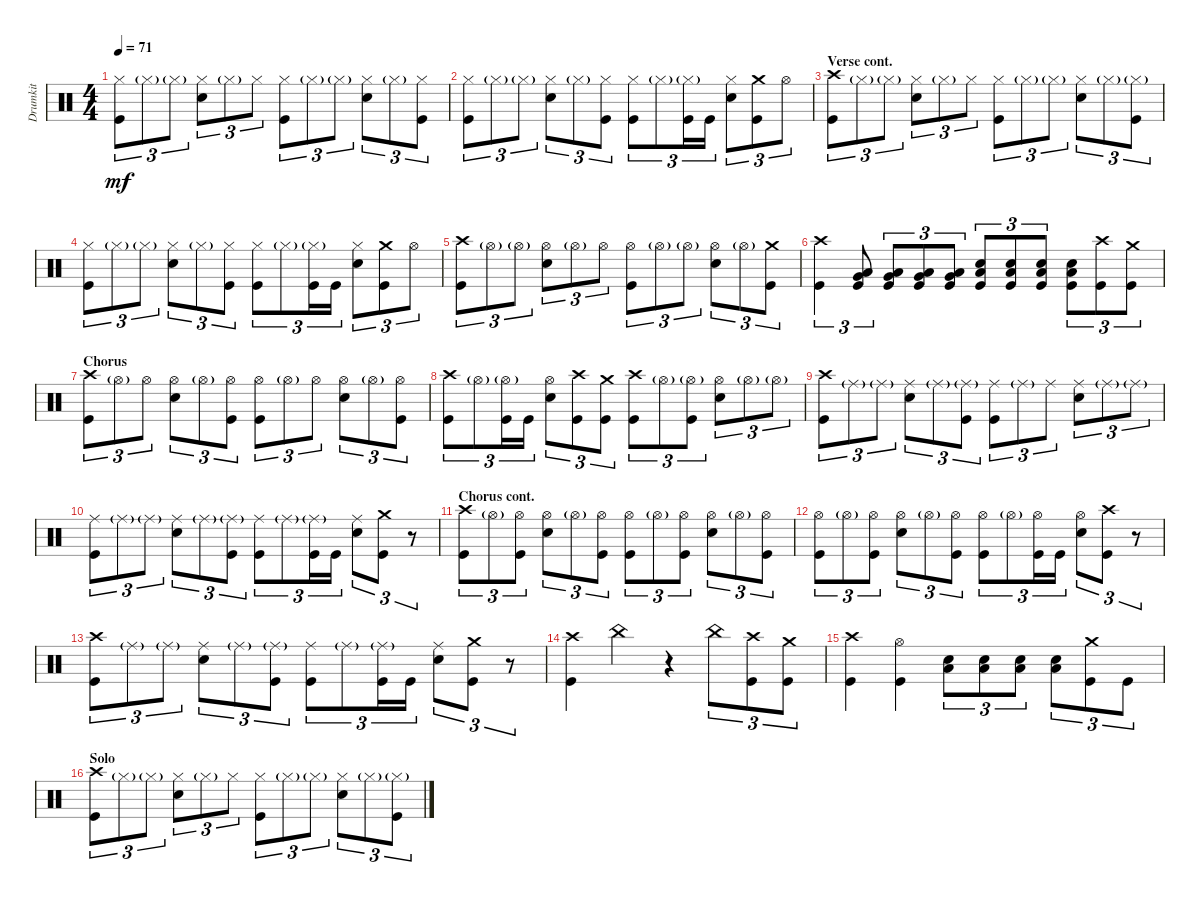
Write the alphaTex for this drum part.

\track ("Drumkit" "Drumkit") {instrument percussion}
\staff {score}
\articulation defaults
\ts (4 4)
\tempo 71
\clef neutral
\ks c
("Hi-Hat (closed)" "Kick (hit)").8{tu (3 2) dy mf} "Hi-Hat (closed)"{g}.8{tu (3 2)} "Hi-Hat (closed)"{g}.8{tu (3 2)} ("Hi-Hat (closed)" "Snare (hit) 2").8{tu (3 2)} "Hi-Hat (closed)"{g}.8{tu (3 2)} "Hi-Hat (closed)".8{tu (3 2)} ("Hi-Hat (closed)" "Kick (hit)").8{tu (3 2)} "Hi-Hat (closed)"{g}.8{tu (3 2)} "Hi-Hat (closed)"{g}.8{tu (3 2)} ("Hi-Hat (closed)" "Snare (hit) 2").8{tu (3 2)} "Hi-Hat (closed)"{g}.8{tu (3 2)} ("Hi-Hat (closed)" "Kick (hit)").8{tu (3 2)} |
("Kick (hit)" "Hi-Hat (closed)").8{tu (3 2)} "Hi-Hat (closed)"{g}.8{tu (3 2)} "Hi-Hat (closed)"{g}.8{tu (3 2)} ("Hi-Hat (closed)" "Snare (hit) 2").8{tu (3 2)} "Hi-Hat (closed)"{g}.8{tu (3 2)} ("Hi-Hat (closed)" "Kick (hit)").8{tu (3 2)} ("Hi-Hat (closed)" "Kick (hit)").8{tu (3 2)} "Hi-Hat (closed)"{g}.8{tu (3 2)} ("Hi-Hat (closed)"{g} "Kick (hit)").16{tu (3 2)} "Kick (hit)".16{tu (3 2)} ("Hi-Hat (closed)" "Snare (hit) 2").8{tu (3 2)} ("Crash medium (hit)" "Kick (hit)").8{tu (3 2)} "Hi-Hat (open)".8{tu (3 2)} |
\section ("" "Verse cont.")
("Crash high (hit)" "Kick (hit)").8{tu (3 2)} "Hi-Hat (closed)"{g}.8{tu (3 2)} "Hi-Hat (closed)"{g}.8{tu (3 2)} ("Hi-Hat (closed)" "Snare (hit) 2").8{tu (3 2)} "Hi-Hat (closed)"{g}.8{tu (3 2)} "Hi-Hat (closed)".8{tu (3 2)} ("Hi-Hat (closed)" "Kick (hit)").8{tu (3 2)} "Hi-Hat (closed)"{g}.8{tu (3 2)} "Hi-Hat (closed)"{g}.8{tu (3 2)} ("Hi-Hat (closed)" "Snare (hit) 2").8{tu (3 2)} "Hi-Hat (closed)"{g}.8{tu (3 2)} ("Hi-Hat (closed)"{g} "Kick (hit)").8{tu (3 2)} |
("Kick (hit)" "Hi-Hat (closed)").8{tu (3 2)} "Hi-Hat (closed)"{g}.8{tu (3 2)} "Hi-Hat (closed)"{g}.8{tu (3 2)} ("Hi-Hat (closed)" "Snare (hit) 2").8{tu (3 2)} "Hi-Hat (closed)"{g}.8{tu (3 2)} ("Hi-Hat (closed)" "Kick (hit)").8{tu (3 2)} ("Hi-Hat (closed)" "Kick (hit)").8{tu (3 2)} "Hi-Hat (closed)"{g}.8{tu (3 2)} ("Hi-Hat (closed)"{g} "Kick (hit)").16{tu (3 2)} "Kick (hit)".16{tu (3 2)} ("Hi-Hat (closed)" "Snare (hit) 2").8{tu (3 2)} ("Crash medium (hit)" "Kick (hit)").8{tu (3 2)} "Hi-Hat (open)".8{tu (3 2)} |
("Kick (hit)" "Crash high (hit)").8{tu (3 2)} "Hi-Hat (open)"{g}.8{tu (3 2)} "Hi-Hat (open)"{g}.8{tu (3 2)} ("Hi-Hat (open)" "Snare (hit) 2").8{tu (3 2)} "Hi-Hat (open)"{g}.8{tu (3 2)} "Hi-Hat (open)".8{tu (3 2)} ("Hi-Hat (open)" "Kick (hit)").8{tu (3 2)} "Hi-Hat (open)"{g}.8{tu (3 2)} "Hi-Hat (open)"{g}.8{tu (3 2)} ("Hi-Hat (open)" "Snare (hit) 2").8{tu (3 2)} "Hi-Hat (open)"{g}.8{tu (3 2)} ("Kick (hit)" "Crash medium (hit)").8{tu (3 2)} |
("Crash high (hit)" "Kick (hit)").4{tu (3 2)} ("Low Floor Tom (hit)" "Kick (hit)" "Very Low Tom (hit)").8{tu (3 2)} ("Low Floor Tom (hit)" "Kick (hit)" "Very Low Tom (hit)").8{tu (3 2)} ("Low Floor Tom (hit)" "Kick (hit)" "Very Low Tom (hit)").8{tu (3 2)} ("Low Floor Tom (hit)" "Kick (hit)" "Very Low Tom (hit)").8{tu (3 2)} ("Snare (hit) 2" "Kick (hit)" "Low Floor Tom (hit)").8{tu (3 2)} ("Snare (hit) 2" "Kick (hit)" "Low Floor Tom (hit)").8{tu (3 2)} ("Snare (hit) 2" "Kick (hit)" "Low Floor Tom (hit)").8{tu (3 2)} ("Snare (hit) 2" "Kick (hit)" "Low Floor Tom (hit)").8{tu (3 2)} ("Kick (hit)" "Crash high (hit)").8{tu (3 2)} ("Kick (hit)" "Crash medium (hit)").8{tu (3 2)} |
\section ("" "Chorus")
("Kick (hit)" "Crash high (hit)").8{tu (3 2)} "Hi-Hat (open)"{g}.8{tu (3 2)} "Hi-Hat (open)".8{tu (3 2)} ("Snare (hit) 2" "Hi-Hat (open)").8{tu (3 2)} "Hi-Hat (open)"{g}.8{tu (3 2)} ("Kick (hit)" "Hi-Hat (open)").8{tu (3 2)} ("Kick (hit)" "Hi-Hat (open)").8{tu (3 2)} "Hi-Hat (open)"{g}.8{tu (3 2)} "Hi-Hat (open)".8{tu (3 2)} ("Snare (hit) 2" "Hi-Hat (open)").8{tu (3 2)} "Hi-Hat (open)"{g}.8{tu (3 2)} ("Kick (hit)" "Hi-Hat (open)").8{tu (3 2)} |
("Kick (hit)" "Crash high (hit)").8{tu (3 2)} "Hi-Hat (open)"{g}.8{tu (3 2)} ("Kick (hit)" "Hi-Hat (open)"{g}).16{tu (3 2)} "Kick (hit)".16{tu (3 2)} ("Snare (hit) 2" "Hi-Hat (open)").8{tu (3 2)} ("Kick (hit)" "Crash high (hit)").8{tu (3 2)} ("Kick (hit)" "Crash medium (hit)").8{tu (3 2)} ("Kick (hit)" "Crash high (hit)").8{tu (3 2)} "Hi-Hat (open)"{g}.8{tu (3 2)} ("Kick (hit)" "Hi-Hat (open)"{g}).8{tu (3 2)} ("Snare (hit) 2" "Hi-Hat (open)").8{tu (3 2)} "Hi-Hat (open)"{g}.8{tu (3 2)} "Hi-Hat (open)"{g}.8{tu (3 2)} |
("Crash high (hit)" "Kick (hit)").8{tu (3 2)} "Ride (middle)"{g}.8{tu (3 2)} "Ride (middle)"{g}.8{tu (3 2)} ("Ride (middle)" "Snare (hit) 2").8{tu (3 2)} "Ride (middle)"{g}.8{tu (3 2)} ("Ride (middle)"{g} "Kick (hit)").8{tu (3 2)} ("Ride (middle)" "Kick (hit)").8{tu (3 2)} "Ride (middle)"{g}.8{tu (3 2)} "Ride (middle)".8{tu (3 2)} ("Ride (middle)" "Snare (hit) 2").8{tu (3 2)} "Ride (middle)"{g}.8{tu (3 2)} "Ride (middle)"{g}.8{tu (3 2)} |
("Ride (middle)" "Kick (hit)").8{tu (3 2)} "Ride (middle)"{g}.8{tu (3 2)} "Ride (middle)"{g}.8{tu (3 2)} ("Ride (middle)" "Snare (hit) 2").8{tu (3 2)} "Ride (middle)"{g}.8{tu (3 2)} ("Ride (middle)"{g} "Kick (hit)").8{tu (3 2)} ("Ride (middle)" "Kick (hit)").8{tu (3 2)} "Ride (middle)"{g}.8{tu (3 2)} ("Ride (middle)"{g} "Kick (hit)").16{tu (3 2)} "Kick (hit)".16{tu (3 2)} ("Ride (middle)" "Snare (hit) 2").8{tu (3 2)} ("Crash medium (hit)" "Kick (hit)").8{tu (3 2)} r.8{tu (3 2)} |
\section ("" "Chorus cont.")
("Kick (hit)" "Crash high (hit)").8{tu (3 2)} "Hi-Hat (open)"{g}.8{tu (3 2)} ("Kick (hit)" "Hi-Hat (open)").8{tu (3 2)} ("Snare (hit) 2" "Hi-Hat (open)").8{tu (3 2)} "Hi-Hat (open)"{g}.8{tu (3 2)} ("Kick (hit)" "Hi-Hat (open)").8{tu (3 2)} ("Kick (hit)" "Hi-Hat (open)").8{tu (3 2)} "Hi-Hat (open)"{g}.8{tu (3 2)} ("Kick (hit)" "Hi-Hat (open)").8{tu (3 2)} ("Snare (hit) 2" "Hi-Hat (open)").8{tu (3 2)} "Hi-Hat (open)"{g}.8{tu (3 2)} ("Kick (hit)" "Hi-Hat (open)").8{tu (3 2)} |
("Kick (hit)" "Hi-Hat (open)").8{tu (3 2)} "Hi-Hat (open)"{g}.8{tu (3 2)} ("Kick (hit)" "Hi-Hat (open)").8{tu (3 2)} ("Snare (hit) 2" "Hi-Hat (open)").8{tu (3 2)} "Hi-Hat (open)"{g}.8{tu (3 2)} ("Kick (hit)" "Hi-Hat (open)").8{tu (3 2)} ("Kick (hit)" "Hi-Hat (open)").8{tu (3 2)} "Hi-Hat (open)"{g}.8{tu (3 2)} ("Kick (hit)" "Hi-Hat (open)").16{tu (3 2)} "Kick (hit)".16{tu (3 2)} ("Snare (hit) 2" "Hi-Hat (open)").8{tu (3 2)} ("Kick (hit)" "Crash high (hit)").8{tu (3 2)} r.8{tu (3 2)} |
("Kick (hit)" "Crash high (hit)").8{tu (3 2)} "Ride (middle)"{g}.8{tu (3 2)} "Ride (middle)"{g}.8{tu (3 2)} ("Ride (middle)" "Snare (hit) 2").8{tu (3 2)} "Ride (middle)"{g}.8{tu (3 2)} ("Ride (middle)"{g} "Kick (hit)").8{tu (3 2)} ("Ride (middle)" "Kick (hit)").8{tu (3 2)} "Ride (middle)"{g}.8{tu (3 2)} ("Ride (middle)"{g} "Kick (hit)").16{tu (3 2)} "Kick (hit)".16{tu (3 2)} ("Ride (middle)" "Snare (hit) 2").8{tu (3 2)} ("Crash medium (hit)" "Kick (hit)").8{tu (3 2)} r.8{tu (3 2)} |
("Kick (hit)" "Crash high (hit)").4 "China (hit)".4 r.4 "China (hit)".8{tu (3 2)} ("Kick (hit)" "Crash high (hit)").8{tu (3 2)} ("Kick (hit)" "Crash medium (hit)").8{tu (3 2)} |
("Kick (hit)" "Crash high (hit)").4 ("Kick (hit)" "Hi-Hat (open)").4 ("Snare (hit) 2" "Low Floor Tom (hit)").8{tu (3 2)} ("Snare (hit) 2" "Low Floor Tom (hit)").8{tu (3 2)} ("Snare (hit) 2" "Low Floor Tom (hit)").8{tu (3 2)} ("Snare (hit) 2" "Low Floor Tom (hit)").8{tu (3 2)} ("Kick (hit)" "Crash medium (hit)").8{tu (3 2)} "Kick (hit)".8{tu (3 2)} |
\section ("" "Solo")
("Crash high (hit)" "Kick (hit)").8{tu (3 2)} "Hi-Hat (closed)"{g}.8{tu (3 2)} "Hi-Hat (closed)"{g}.8{tu (3 2)} ("Hi-Hat (closed)" "Snare (hit) 2").8{tu (3 2)} "Hi-Hat (closed)"{g}.8{tu (3 2)} "Hi-Hat (closed)".8{tu (3 2)} ("Hi-Hat (closed)" "Kick (hit)").8{tu (3 2)} "Hi-Hat (closed)"{g}.8{tu (3 2)} "Hi-Hat (closed)"{g}.8{tu (3 2)} ("Hi-Hat (closed)" "Snare (hit) 2").8{tu (3 2)} "Hi-Hat (closed)"{g}.8{tu (3 2)} ("Hi-Hat (closed)"{g} "Kick (hit)").8{tu (3 2)}
